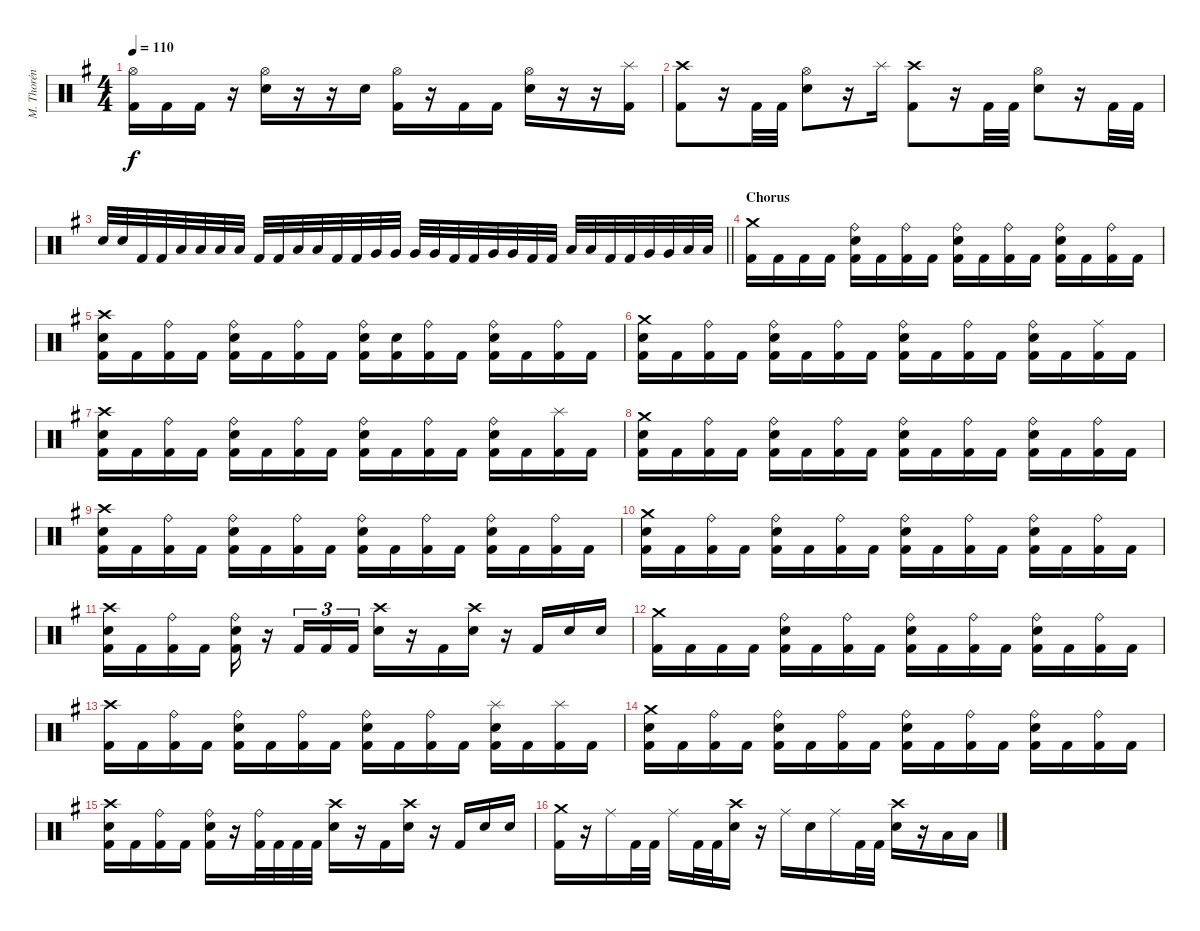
\track ("M. Thorén (Drums)" "M. Thorén ") {instrument percussion}
\staff {score}
\articulation defaults
\ts (4 4)
\tempo 110
\clef neutral
\ks eminor
("Hi-Hat (open)" "Kick (hit) 2").16{dy f} "Kick (hit) 2".16 "Kick (hit) 2".16 r.16 ("Hi-Hat (open)" "Electric Snare (hit)").16 r.16 r.16 "Electric Snare (hit)".16 ("Hi-Hat (open)" "Kick (hit) 2").16 r.16 "Kick (hit) 2".16 "Kick (hit) 2".16 ("Hi-Hat (open)" "Electric Snare (hit)").16 r.16 r.16 ("Splash (hit)" "Kick (hit) 2").16 |
("Crash high (hit)" "Kick (hit) 2").8 r.16 "Kick (hit) 2".32 "Kick (hit) 2".32 ("Hi-Hat (open)" "Electric Snare (hit)").8 r.16 "Splash (hit)".16 ("Crash high (hit)" "Kick (hit) 2").8 r.16 "Kick (hit) 2".32 "Kick (hit) 2".32 ("Hi-Hat (open)" "Electric Snare (hit)").8 r.16 "Kick (hit) 2".32 "Kick (hit) 2".32 |
\barLineRight lightlight "Electric Snare (hit)".32 "Electric Snare (hit)".32 "Kick (hit) 2".32 "Kick (hit) 2".32 "Low Tom (hit)".32 "Low Tom (hit)".32 "Low Tom (hit)".32 "Low Tom (hit)".32 "Kick (hit) 2".32 "Kick (hit) 2".32 "Low Tom (hit)".32 "Low Tom (hit)".32 "Kick (hit) 2".32 "Kick (hit) 2".32 "Very Low Tom (hit)".32 "Very Low Tom (hit)".32 "Very Low Tom (hit)".32 "Very Low Tom (hit)".32 "Kick (hit) 2".32 "Kick (hit) 2".32 "Very Low Tom (hit)".32 "Very Low Tom (hit)".32 "Kick (hit) 2".32 "Kick (hit) 2".32 "Low Tom (hit)".32 "Low Tom (hit)".32 "Kick (hit) 2".32 "Kick (hit) 2".32 "Very Low Tom (hit)".32 "Very Low Tom (hit)".32 "Low Floor Tom (hit)".32 "Low Floor Tom (hit)".32
|
\section ("" "Chorus")
("Crash medium (hit)" "Kick (hit) 2").16 "Kick (hit) 2".16 "Kick (hit) 2".16 "Kick (hit) 2".16 ("Ride (bell)" "Electric Snare (hit)" "Kick (hit) 2").16 "Kick (hit) 2".16 ("Ride (bell)" "Kick (hit) 2").16 "Kick (hit) 2".16 ("Ride (bell)" "Electric Snare (hit)" "Kick (hit) 2").16 "Kick (hit) 2".16 ("Ride (bell)" "Kick (hit) 2").16 "Kick (hit) 2".16 ("Ride (bell)" "Electric Snare (hit)" "Kick (hit) 2").16 "Kick (hit) 2".16 ("Ride (bell)" "Kick (hit) 2").16 "Kick (hit) 2".16 |
("Crash high (hit)" "Electric Snare (hit)" "Kick (hit) 2").16 "Kick (hit) 2".16 ("Ride (bell)" "Kick (hit) 2").16 "Kick (hit) 2".16 ("Ride (bell)" "Electric Snare (hit)" "Kick (hit) 2").16 "Kick (hit) 2".16 ("Ride (bell)" "Kick (hit) 2").16 "Kick (hit) 2".16 ("Ride (bell)" "Electric Snare (hit)" "Kick (hit) 2").16 ("Electric Snare (hit)" "Kick (hit) 2").16 ("Ride (bell)" "Kick (hit) 2").16 "Kick (hit) 2".16 ("Ride (bell)" "Electric Snare (hit)" "Kick (hit) 2").16 "Kick (hit) 2".16 ("Ride (bell)" "Kick (hit) 2").16 "Kick (hit) 2".16 |
("Crash medium (hit)" "Electric Snare (hit)" "Kick (hit) 2").16 "Kick (hit) 2".16 ("Ride (bell)" "Kick (hit) 2").16 "Kick (hit) 2".16 ("Ride (bell)" "Electric Snare (hit)" "Kick (hit) 2").16 "Kick (hit) 2".16 ("Ride (bell)" "Kick (hit) 2").16 "Kick (hit) 2".16 ("Ride (bell)" "Electric Snare (hit)" "Kick (hit) 2").16 "Kick (hit) 2".16 ("Ride (bell)" "Kick (hit) 2").16 "Kick (hit) 2".16 ("Ride (bell)" "Electric Snare (hit)" "Kick (hit) 2").16 "Kick (hit) 2".16 ("Ride (middle)" "Kick (hit) 2").16 "Kick (hit) 2".16 |
("Crash high (hit)" "Electric Snare (hit)" "Kick (hit) 2").16 "Kick (hit) 2".16 ("Ride (bell)" "Kick (hit) 2").16 "Kick (hit) 2".16 ("Ride (bell)" "Electric Snare (hit)" "Kick (hit) 2").16 "Kick (hit) 2".16 ("Ride (bell)" "Kick (hit) 2").16 "Kick (hit) 2".16 ("Ride (bell)" "Electric Snare (hit)" "Kick (hit) 2").16 "Kick (hit) 2".16 ("Ride (bell)" "Kick (hit) 2").16 "Kick (hit) 2".16 ("Ride (bell)" "Electric Snare (hit)" "Kick (hit) 2").16 "Kick (hit) 2".16 ("Splash (hit)" "Kick (hit) 2").16 "Kick (hit) 2".16 |
("Crash medium (hit)" "Electric Snare (hit)" "Kick (hit) 2").16 "Kick (hit) 2".16 ("Ride (bell)" "Kick (hit) 2").16 "Kick (hit) 2".16 ("Ride (bell)" "Electric Snare (hit)" "Kick (hit) 2").16 "Kick (hit) 2".16 ("Ride (bell)" "Kick (hit) 2").16 "Kick (hit) 2".16 ("Ride (bell)" "Electric Snare (hit)" "Kick (hit) 2").16 "Kick (hit) 2".16 ("Ride (bell)" "Kick (hit) 2").16 "Kick (hit) 2".16 ("Ride (bell)" "Electric Snare (hit)" "Kick (hit) 2").16 "Kick (hit) 2".16 ("Ride (bell)" "Kick (hit) 2").16 "Kick (hit) 2".16 |
("Crash high (hit)" "Electric Snare (hit)" "Kick (hit) 2").16 "Kick (hit) 2".16 ("Ride (bell)" "Kick (hit) 2").16 "Kick (hit) 2".16 ("Ride (bell)" "Electric Snare (hit)" "Kick (hit) 2").16 "Kick (hit) 2".16 ("Ride (bell)" "Kick (hit) 2").16 "Kick (hit) 2".16 ("Ride (bell)" "Electric Snare (hit)" "Kick (hit) 2").16 "Kick (hit) 2".16 ("Ride (bell)" "Kick (hit) 2").16 "Kick (hit) 2".16 ("Ride (bell)" "Electric Snare (hit)" "Kick (hit) 2").16 "Kick (hit) 2".16 ("Ride (bell)" "Kick (hit) 2").16 "Kick (hit) 2".16 |
("Crash medium (hit)" "Electric Snare (hit)" "Kick (hit) 2").16 "Kick (hit) 2".16 ("Ride (bell)" "Kick (hit) 2").16 "Kick (hit) 2".16 ("Ride (bell)" "Electric Snare (hit)" "Kick (hit) 2").16 "Kick (hit) 2".16 ("Ride (bell)" "Kick (hit) 2").16 "Kick (hit) 2".16 ("Ride (bell)" "Electric Snare (hit)" "Kick (hit) 2").16 "Kick (hit) 2".16 ("Ride (bell)" "Kick (hit) 2").16 "Kick (hit) 2".16 ("Ride (bell)" "Electric Snare (hit)" "Kick (hit) 2").16 "Kick (hit) 2".16 ("Ride (bell)" "Kick (hit) 2").16 "Kick (hit) 2".16 |
("Crash high (hit)" "Electric Snare (hit)" "Kick (hit) 2").16 "Kick (hit) 2".16 ("Ride (bell)" "Kick (hit) 2").16 "Kick (hit) 2".16 ("Ride (bell)" "Electric Snare (hit)" "Kick (hit) 2").16 r.16 "Kick (hit) 2".16{tu (3 2)} "Kick (hit) 2".16{tu (3 2)} "Kick (hit) 2".16{tu (3 2)} ("Crash high (hit)" "Electric Snare (hit)").16 r.16 "Kick (hit) 2".16 ("Crash high (hit)" "Electric Snare (hit)").16 r.16 "Kick (hit) 2".16 "Electric Snare (hit)".16 "Electric Snare (hit)".16 |
("Crash medium (hit)" "Kick (hit) 2").16 "Kick (hit) 2".16 "Kick (hit) 2".16 "Kick (hit) 2".16 ("Ride (bell)" "Electric Snare (hit)" "Kick (hit) 2").16 "Kick (hit) 2".16 ("Ride (bell)" "Kick (hit) 2").16 "Kick (hit) 2".16 ("Ride (bell)" "Electric Snare (hit)" "Kick (hit) 2").16 "Kick (hit) 2".16 ("Ride (bell)" "Kick (hit) 2").16 "Kick (hit) 2".16 ("Ride (bell)" "Electric Snare (hit)" "Kick (hit) 2").16 "Kick (hit) 2".16 ("Ride (bell)" "Kick (hit) 2").16 "Kick (hit) 2".16 |
("Crash high (hit)" "Kick (hit) 2").16 "Kick (hit) 2".16 ("Ride (bell)" "Kick (hit) 2").16 "Kick (hit) 2".16 ("Ride (bell)" "Electric Snare (hit)" "Kick (hit) 2").16 "Kick (hit) 2".16 ("Ride (bell)" "Kick (hit) 2").16 "Kick (hit) 2".16 ("Ride (bell)" "Electric Snare (hit)" "Kick (hit) 2").16 "Kick (hit) 2".16 ("Ride (bell)" "Kick (hit) 2").16 "Kick (hit) 2".16 ("Splash (hit)" "Electric Snare (hit)" "Kick (hit) 2").16 "Kick (hit) 2".16 ("Splash (hit)" "Kick (hit) 2").16 "Kick (hit) 2".16 |
("Crash medium (hit)" "Electric Snare (hit)" "Kick (hit) 2").16 "Kick (hit) 2".16 ("Ride (bell)" "Kick (hit) 2").16 "Kick (hit) 2".16 ("Ride (bell)" "Electric Snare (hit)" "Kick (hit) 2").16 "Kick (hit) 2".16 ("Ride (bell)" "Kick (hit) 2").16 "Kick (hit) 2".16 ("Ride (bell)" "Electric Snare (hit)" "Kick (hit) 2").16 "Kick (hit) 2".16 ("Ride (bell)" "Kick (hit) 2").16 "Kick (hit) 2".16 ("Ride (bell)" "Electric Snare (hit)" "Kick (hit) 2").16 "Kick (hit) 2".16 ("Ride (bell)" "Kick (hit) 2").16 "Kick (hit) 2".16 |
("Crash high (hit)" "Electric Snare (hit)" "Kick (hit) 2").16 "Kick (hit) 2".16 ("Ride (bell)" "Kick (hit) 2").16 "Kick (hit) 2".16 ("Ride (bell)" "Electric Snare (hit)" "Kick (hit) 2").16 r.16 ("Ride (bell)" "Kick (hit) 2").32 "Kick (hit) 2".32 "Kick (hit) 2".32 "Kick (hit) 2".32 ("Crash high (hit)" "Electric Snare (hit)").16 r.16 "Kick (hit) 2".16 ("Crash high (hit)" "Electric Snare (hit)").16 r.16 "Kick (hit) 2".16 "Electric Snare (hit)".16 "Electric Snare (hit)".16 |
("Crash medium (hit)" "Kick (hit) 2").16 r.16 "Ride (middle)".16 "Kick (hit) 2".32 "Kick (hit) 2".32 "Ride (middle)".16 "Kick (hit) 2".32 "Kick (hit) 2".32 ("Crash high (hit)" "Electric Snare (hit)").16 r.16 "Ride (middle)".16 "Electric Snare (hit)".16 "Ride (middle)".16 "Kick (hit) 2".32 "Kick (hit) 2".32 ("Crash high (hit)" "Electric Snare (hit)").16 r.16 "Low Tom (hit)".16 "Low Tom (hit)".16
